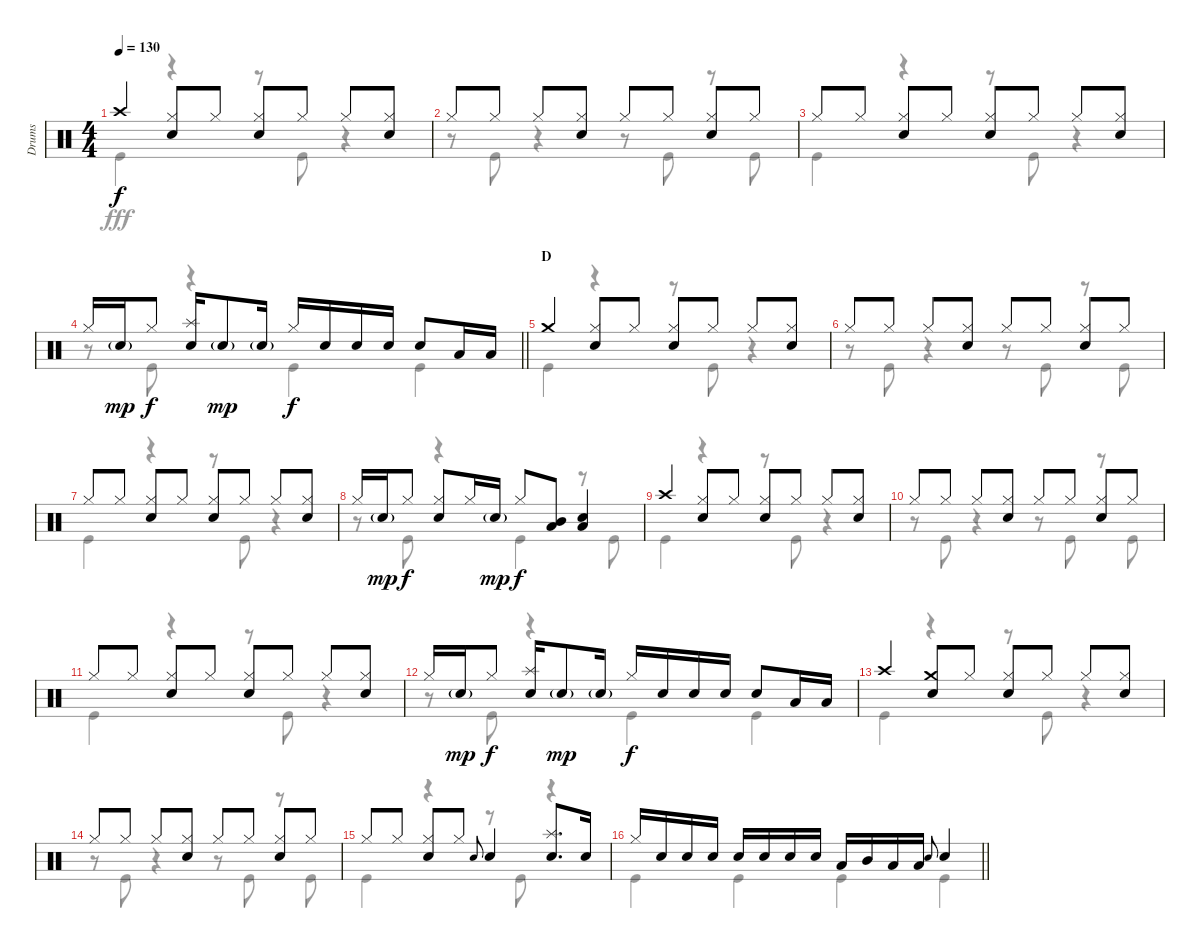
\track ("Drums" "Drums") {instrument percussion}
\staff {score}
\articulation defaults
\voice
\ts (4 4)
\tempo 130
\clef neutral
\ks c "Crash high (hit)".4{dy f}
("Hi-Hat (closed)" "Snare (hit) 2").8 "Hi-Hat (closed)".8 ("Hi-Hat (closed)" "Snare (hit) 2").8 "Hi-Hat (closed)".8 "Hi-Hat (closed)".8 ("Hi-Hat (closed)" "Snare (hit) 2").8 |
"Hi-Hat (closed)".8 "Hi-Hat (closed)".8 "Hi-Hat (closed)".8 ("Hi-Hat (closed)" "Snare (hit) 2").8 "Hi-Hat (closed)".8 "Hi-Hat (closed)".8 ("Hi-Hat (closed)" "Snare (hit) 2").8 "Hi-Hat (closed)".8 |
"Hi-Hat (closed)".8 "Hi-Hat (closed)".8 ("Hi-Hat (closed)" "Snare (hit) 2").8 "Hi-Hat (closed)".8 ("Hi-Hat (closed)" "Snare (hit) 2").8 "Hi-Hat (closed)".8 "Hi-Hat (closed)".8 ("Hi-Hat (closed)" "Snare (hit) 2").8 |
\barLineRight lightlight "Hi-Hat (closed)".16 "Snare (hit) 2"{g}.16{dy mp} "Hi-Hat (closed)".8{dy f}
("Splash (hit)" "Snare (hit) 2").16 "Snare (hit) 2"{g}.8{dy mp} "Snare (hit) 2"{g}.16 "Hi-Hat (closed)".16{dy f} "Snare (hit) 2".16 "Snare (hit) 2".16 "Snare (hit) 2".16 "Snare (hit) 2".8 "Low Tom (hit)".16 "Low Tom (hit)".16 |
\section ("" "D")
"Crash medium (hit)".4 ("Hi-Hat (closed)" "Snare (hit) 2").8 "Hi-Hat (closed)".8 ("Hi-Hat (closed)" "Snare (hit) 2").8 "Hi-Hat (closed)".8 "Hi-Hat (closed)".8 ("Hi-Hat (closed)" "Snare (hit) 2").8 |
"Hi-Hat (closed)".8 "Hi-Hat (closed)".8 "Hi-Hat (closed)".8 ("Hi-Hat (closed)" "Snare (hit) 2").8 "Hi-Hat (closed)".8 "Hi-Hat (closed)".8 ("Hi-Hat (closed)" "Snare (hit) 2").8 "Hi-Hat (closed)".8 |
"Hi-Hat (closed)".8 "Hi-Hat (closed)".8 ("Hi-Hat (closed)" "Snare (hit) 2").8 "Hi-Hat (closed)".8 ("Hi-Hat (closed)" "Snare (hit) 2").8 "Hi-Hat (closed)".8 "Hi-Hat (closed)".8 ("Hi-Hat (closed)" "Snare (hit) 2").8 |
"Hi-Hat (closed)".16 "Snare (hit) 2"{g}.16{dy mp} "Hi-Hat (closed)".8{dy f} ("Hi-Hat (closed)" "Snare (hit) 2").8 "Hi-Hat (closed)".16 "Snare (hit) 2"{g}.16{dy mp} "Hi-Hat (closed)".8{dy f} ("Mid Tom (hit)" "Low Tom (hit)").8 ("Snare (hit) 2" "Low Tom (hit)").4 |
"Crash high (hit)".4 ("Hi-Hat (closed)" "Snare (hit) 2").8 "Hi-Hat (closed)".8 ("Hi-Hat (closed)" "Snare (hit) 2").8 "Hi-Hat (closed)".8 "Hi-Hat (closed)".8 ("Hi-Hat (closed)" "Snare (hit) 2").8 |
"Hi-Hat (closed)".8 "Hi-Hat (closed)".8 "Hi-Hat (closed)".8 ("Hi-Hat (closed)" "Snare (hit) 2").8 "Hi-Hat (closed)".8 "Hi-Hat (closed)".8 ("Hi-Hat (closed)" "Snare (hit) 2").8 "Hi-Hat (closed)".8 |
"Hi-Hat (closed)".8 "Hi-Hat (closed)".8 ("Hi-Hat (closed)" "Snare (hit) 2").8 "Hi-Hat (closed)".8 ("Hi-Hat (closed)" "Snare (hit) 2").8 "Hi-Hat (closed)".8 "Hi-Hat (closed)".8 ("Hi-Hat (closed)" "Snare (hit) 2").8 |
"Hi-Hat (closed)".16 "Snare (hit) 2"{g}.16{dy mp} "Hi-Hat (closed)".8{dy f} ("Splash (hit)" "Snare (hit) 2").16 "Snare (hit) 2"{g}.8{dy mp} "Snare (hit) 2"{g}.16 "Hi-Hat (closed)".16{dy f} "Snare (hit) 2".16 "Snare (hit) 2".16 "Snare (hit) 2".16 "Snare (hit) 2".8 "Low Tom (hit)".16 "Low Tom (hit)".16 |
"Crash high (hit)".4 ("Crash medium (hit)" "Snare (hit) 2").8 "Hi-Hat (closed)".8 ("Hi-Hat (closed)" "Snare (hit) 2").8 "Hi-Hat (closed)".8 "Hi-Hat (closed)".8 ("Hi-Hat (closed)" "Snare (hit) 2").8 |
"Hi-Hat (closed)".8 "Hi-Hat (closed)".8 "Hi-Hat (closed)".8 ("Hi-Hat (closed)" "Snare (hit) 2").8 "Hi-Hat (closed)".8 "Hi-Hat (closed)".8 ("Hi-Hat (closed)" "Snare (hit) 2").8 "Hi-Hat (closed)".8 |
"Hi-Hat (closed)".8 "Hi-Hat (closed)".8 ("Hi-Hat (closed)" "Snare (hit) 2").8 "Hi-Hat (closed)".8 "Snare (hit) 2".8{gr onbeat} "Snare (hit) 2".4 ("Splash (hit)" "Snare (hit) 2").8{d} "Snare (hit) 2".16 |
\barLineRight lightlight "Hi-Hat (closed)".16 "Snare (hit) 2".16 "Snare (hit) 2".16 "Snare (hit) 2".16 "Snare (hit) 2".16 "Snare (hit) 2".16 "Snare (hit) 2".16 "Snare (hit) 2".16 "Low Tom (hit)".16 "Mid Tom (hit)".16 "Low Tom (hit)".16 "Low Tom (hit)".16 "Snare (hit) 2".8{gr onbeat} "Snare (hit) 2".4
\voice
\clef neutral
\ottava regular
\simile none
\ks c "Kick (hit)".4{dy fff}
r.4 r.8 "Kick (hit)".8 r.4 |
r.8 "Kick (hit)".8 r.4 r.8 "Kick (hit)".8 r.8 "Kick (hit)".8 |
"Kick (hit)".4 r.4 r.8 "Kick (hit)".8 r.4 |
\barLineRight lightlight
r.8 "Kick (hit)".8 r.4 "Kick (hit)".4 "Kick (hit)".4 |
"Kick (hit)".4 r.4 r.8 "Kick (hit)".8 r.4 |
r.8 "Kick (hit)".8 r.4 r.8 "Kick (hit)".8 r.8 "Kick (hit)".8 |
"Kick (hit)".4 r.4 r.8 "Kick (hit)".8 r.4 |
r.8 "Kick (hit)".8 r.4 "Kick (hit)".4 r.8 "Kick (hit)".8 |
"Kick (hit)".4 r.4 r.8 "Kick (hit)".8 r.4 |
r.8 "Kick (hit)".8 r.4 r.8 "Kick (hit)".8 r.8 "Kick (hit)".8 |
"Kick (hit)".4 r.4 r.8 "Kick (hit)".8 r.4 |
r.8 "Kick (hit)".8 r.4 "Kick (hit)".4 "Kick (hit)".4 |
"Kick (hit)".4 r.4 r.8 "Kick (hit)".8 r.4 |
r.8 "Kick (hit)".8 r.4 r.8 "Kick (hit)".8 r.8 "Kick (hit)".8 |
"Kick (hit)".4 r.4 r.8 "Kick (hit)".8 r.4 |
\barLineRight lightlight "Kick (hit)".4 "Kick (hit)".4 "Kick (hit)".4 "Kick (hit)".4
